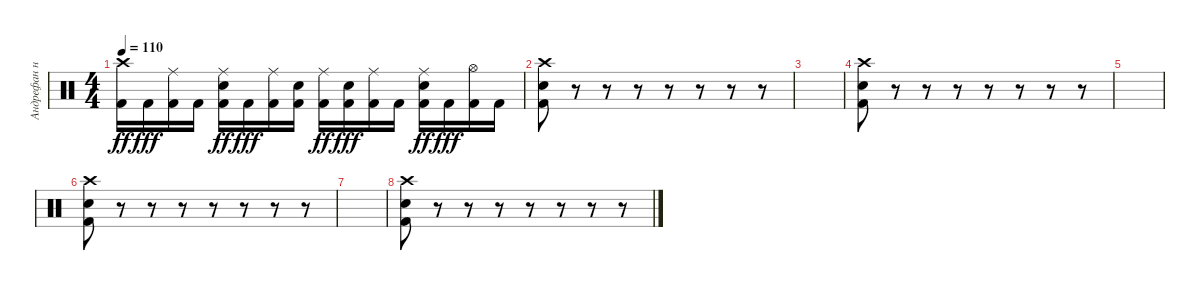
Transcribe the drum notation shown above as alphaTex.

\track ("Андрефан на драмах" "Андрефан н") {instrument percussion}
\staff {score}
\articulation defaults
\ts (4 4)
\tempo 110
\clef neutral
\ks c
("Crash high (hit)" "Kick (hit) 2").16{dy ff} "Kick (hit) 2".16{dy fff} ("Ride (middle)" "Kick (hit) 2").16 "Kick (hit) 2".16 ("Ride (middle)" "Electric Snare (hit)" "Kick (hit) 2").16{dy ff} "Kick (hit) 2".16{dy fff} ("Ride (middle)" "Kick (hit) 2").16 ("Electric Snare (hit)" "Kick (hit) 2").16 ("Ride (middle)" "Kick (hit) 2").16{dy ff} ("Electric Snare (hit)" "Kick (hit) 2").16{dy fff} ("Ride (middle)" "Kick (hit) 2").16 "Kick (hit) 2".16 ("Ride (middle)" "Electric Snare (hit)" "Kick (hit) 2").16{dy ff} "Kick (hit) 2".16{dy fff} ("Hi-Hat (open)" "Kick (hit) 2").16 "Kick (hit) 2".16 |
("Crash high (hit)" "Kick (hit) 2" "Electric Snare (hit)").8 r.8 r.8 r.8 r.8 r.8 r.8 r.8 |
|
("Crash high (hit)" "Kick (hit) 2" "Electric Snare (hit)").8 r.8 r.8 r.8 r.8 r.8 r.8 r.8 |
|
("Crash high (hit)" "Kick (hit) 2" "Electric Snare (hit)").8 r.8 r.8 r.8 r.8 r.8 r.8 r.8 |
|
("Crash high (hit)" "Kick (hit) 2" "Electric Snare (hit)").8 r.8 r.8 r.8 r.8 r.8 r.8 r.8
